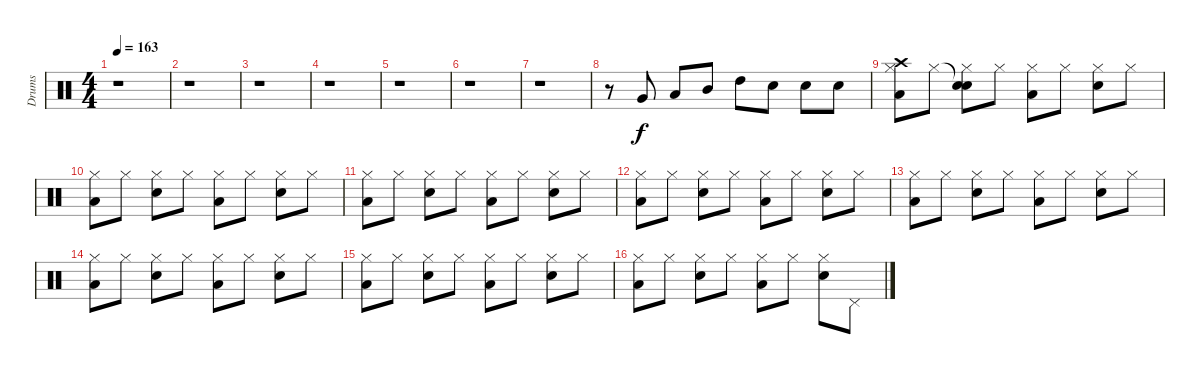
\track ("Drums" "Drums") {instrument percussion}
\staff {score}
\articulation defaults
\ts (4 4)
\tempo 163
\clef neutral
\ks c
r.1{dy f} |
r.1 |
r.1 |
r.1 |
r.1 |
r.1 |
r.1 |
r.8 "Very Low Tom (hit)".8 "Low Tom (hit)".8 "Mid Tom (hit)".8 "High Tom (hit)".8 "Snare (hit) 2".8 "Snare (hit) 2".8 "Snare (hit) 2".8 |
("Crash high (hit)" "Low Tom (hit)" "Hi-Hat (closed)").8 "Hi-Hat (closed)".8 ("Snare (hit)"{t} "Snare (hit) 2" "Hi-Hat (closed)").8 "Hi-Hat (closed)".8 ("Low Tom (hit)" "Hi-Hat (closed)").8 "Hi-Hat (closed)".8 ("Snare (hit) 2" "Hi-Hat (closed)").8 "Hi-Hat (closed)".8 |
("Low Tom (hit)" "Hi-Hat (closed)").8 "Hi-Hat (closed)".8 ("Snare (hit) 2" "Hi-Hat (closed)").8 "Hi-Hat (closed)".8 ("Low Tom (hit)" "Hi-Hat (closed)").8 "Hi-Hat (closed)".8 ("Snare (hit) 2" "Hi-Hat (closed)").8 "Hi-Hat (closed)".8 |
("Low Tom (hit)" "Hi-Hat (closed)").8 "Hi-Hat (closed)".8 ("Snare (hit) 2" "Hi-Hat (closed)").8 "Hi-Hat (closed)".8 ("Low Tom (hit)" "Hi-Hat (closed)").8 "Hi-Hat (closed)".8 ("Snare (hit) 2" "Hi-Hat (closed)").8 "Hi-Hat (closed)".8 |
("Low Tom (hit)" "Hi-Hat (closed)").8 "Hi-Hat (closed)".8 ("Snare (hit) 2" "Hi-Hat (closed)").8 "Hi-Hat (closed)".8 ("Low Tom (hit)" "Hi-Hat (closed)").8 "Hi-Hat (closed)".8 ("Snare (hit) 2" "Hi-Hat (closed)").8 "Hi-Hat (closed)".8 |
("Low Tom (hit)" "Hi-Hat (closed)").8 "Hi-Hat (closed)".8 ("Snare (hit) 2" "Hi-Hat (closed)").8 "Hi-Hat (closed)".8 ("Low Tom (hit)" "Hi-Hat (closed)").8 "Hi-Hat (closed)".8 ("Snare (hit) 2" "Hi-Hat (closed)").8 "Hi-Hat (closed)".8 |
("Low Tom (hit)" "Hi-Hat (closed)").8 "Hi-Hat (closed)".8 ("Snare (hit) 2" "Hi-Hat (closed)").8 "Hi-Hat (closed)".8 ("Low Tom (hit)" "Hi-Hat (closed)").8 "Hi-Hat (closed)".8 ("Snare (hit) 2" "Hi-Hat (closed)").8 "Hi-Hat (closed)".8 |
("Low Tom (hit)" "Hi-Hat (closed)").8 "Hi-Hat (closed)".8 ("Snare (hit) 2" "Hi-Hat (closed)").8 "Hi-Hat (closed)".8 ("Low Tom (hit)" "Hi-Hat (closed)").8 "Hi-Hat (closed)".8 ("Snare (hit) 2" "Hi-Hat (closed)").8 "Hi-Hat (closed)".8 |
("Low Tom (hit)" "Hi-Hat (closed)").8 "Hi-Hat (closed)".8 ("Snare (hit) 2" "Hi-Hat (closed)").8 "Hi-Hat (closed)".8 ("Low Tom (hit)" "Hi-Hat (closed)").8 "Hi-Hat (closed)".8 ("Snare (hit) 2" "Hi-Hat (closed)").8 "Pedal Hi-Hat (hit)".8
